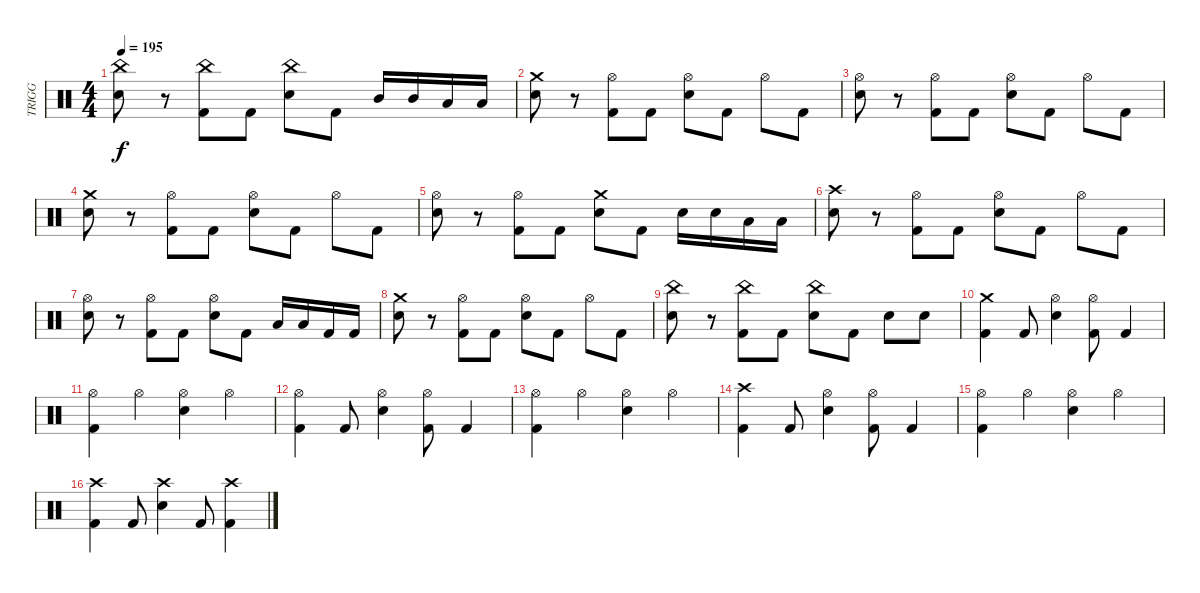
\track ("TRIGG" "TRIGG") {instrument percussion}
\staff {score}
\articulation defaults
\ts (4 4)
\tempo 195
\clef neutral
\ks c
("China (hit)" "Electric Snare (hit)").8{dy f} r.8 ("China (hit)" "Kick (hit) 2").8 "Kick (hit) 2".8 ("China (hit)" "Electric Snare (hit)").8 "Kick (hit) 2".8 "Mid Tom (hit)".16 "Mid Tom (hit)".16 "Low Tom (hit)".16 "Low Tom (hit)".16 |
("Crash medium (hit)" "Electric Snare (hit)").8 r.8 ("Hi-Hat (open)" "Kick (hit) 2").8 "Kick (hit) 2".8 ("Hi-Hat (open)" "Electric Snare (hit)").8 "Kick (hit) 2".8 "Hi-Hat (open)".8 "Kick (hit) 2".8 |
("Hi-Hat (open)" "Electric Snare (hit)").8 r.8 ("Hi-Hat (open)" "Kick (hit) 2").8 "Kick (hit) 2".8 ("Hi-Hat (open)" "Electric Snare (hit)").8 "Kick (hit) 2".8 "Hi-Hat (open)".8 "Kick (hit) 2".8 |
("Crash medium (hit)" "Electric Snare (hit)").8 r.8 ("Hi-Hat (open)" "Kick (hit) 2").8 "Kick (hit) 2".8 ("Hi-Hat (open)" "Electric Snare (hit)").8 "Kick (hit) 2".8 "Hi-Hat (open)".8 "Kick (hit) 2".8 |
("Hi-Hat (open)" "Electric Snare (hit)").8 r.8 ("Hi-Hat (open)" "Kick (hit) 2").8 "Kick (hit) 2".8 ("Crash medium (hit)" "Electric Snare (hit)").8 "Kick (hit) 2".8 "Electric Snare (hit)".16 "Electric Snare (hit)".16 "Low Tom (hit)".16 "Low Tom (hit)".16 |
("Crash high (hit)" "Electric Snare (hit)").8 r.8 ("Hi-Hat (open)" "Kick (hit) 2").8 "Kick (hit) 2".8 ("Hi-Hat (open)" "Electric Snare (hit)").8 "Kick (hit) 2".8 "Hi-Hat (open)".8 "Kick (hit) 2".8 |
("Hi-Hat (open)" "Electric Snare (hit)").8 r.8 ("Hi-Hat (open)" "Kick (hit) 2").8 "Kick (hit) 2".8 ("Hi-Hat (open)" "Electric Snare (hit)").8 "Kick (hit) 2".8 "Low Tom (hit)".16 "Low Tom (hit)".16 "Kick (hit) 2".16 "Kick (hit) 2".16 |
("Crash medium (hit)" "Electric Snare (hit)").8 r.8 ("Hi-Hat (open)" "Kick (hit) 2").8 "Kick (hit) 2".8 ("Hi-Hat (open)" "Electric Snare (hit)").8 "Kick (hit) 2".8 "Hi-Hat (open)".8 "Kick (hit) 2".8 |
("China (hit)" "Electric Snare (hit)").8 r.8 ("China (hit)" "Kick (hit) 2").8 "Kick (hit) 2".8 ("China (hit)" "Electric Snare (hit)").8 "Kick (hit) 2".8 "Electric Snare (hit)".8 "Electric Snare (hit)".8 |
("Crash medium (hit)" "Kick (hit) 2").4 "Kick (hit) 2".8 ("Hi-Hat (open)" "Electric Snare (hit)").4 ("Hi-Hat (open)" "Kick (hit) 2").8 "Kick (hit) 2".4 |
("Hi-Hat (open)" "Kick (hit) 2").4 "Hi-Hat (open)".4 ("Hi-Hat (open)" "Electric Snare (hit)").4 "Hi-Hat (open)".4 |
("Hi-Hat (open)" "Kick (hit) 2").4 "Kick (hit) 2".8 ("Hi-Hat (open)" "Electric Snare (hit)").4 ("Hi-Hat (open)" "Kick (hit) 2").8 "Kick (hit) 2".4 |
("Hi-Hat (open)" "Kick (hit) 2").4 "Hi-Hat (open)".4 ("Hi-Hat (open)" "Electric Snare (hit)").4 "Hi-Hat (open)".4 |
("Crash high (hit)" "Kick (hit) 2").4 "Kick (hit) 2".8 ("Hi-Hat (open)" "Electric Snare (hit)").4 ("Hi-Hat (open)" "Kick (hit) 2").8 "Kick (hit) 2".4 |
("Hi-Hat (open)" "Kick (hit) 2").4 "Hi-Hat (open)".4 ("Hi-Hat (open)" "Electric Snare (hit)").4 "Hi-Hat (open)".4 |
("Crash high (hit)" "Kick (hit) 2").4 "Kick (hit) 2".8 ("Crash high (hit)" "Electric Snare (hit)").4 "Kick (hit) 2".8 ("Crash high (hit)" "Kick (hit) 2").4
